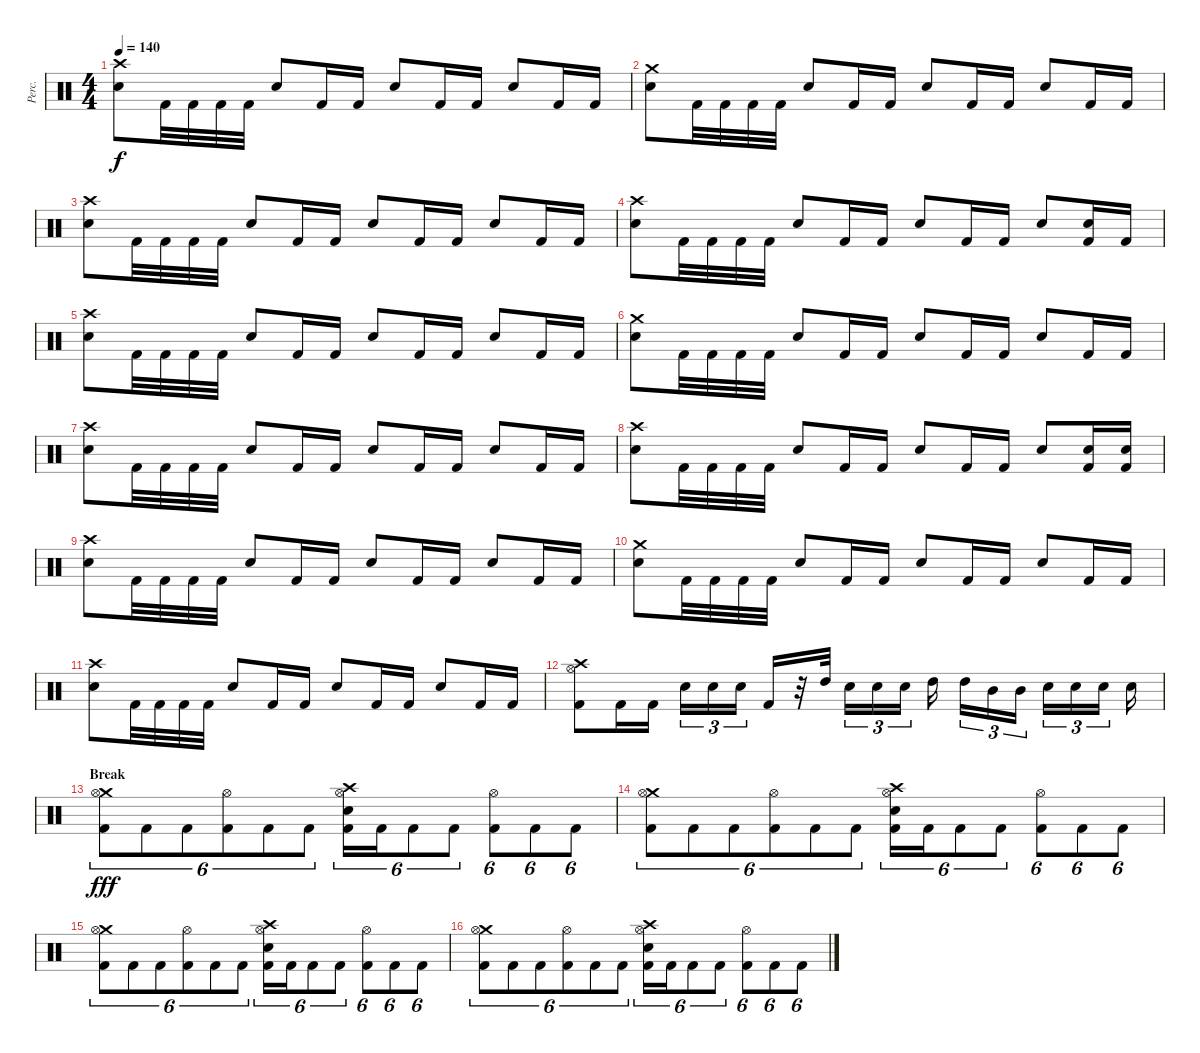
\track ("Perc." "Perc.") {instrument percussion}
\staff {score}
\articulation defaults
\ts (4 4)
\tempo 140
\clef neutral
\ks c
("Crash high (hit)" "Electric Snare (hit)").8{dy f} "Kick (hit) 2".32 "Kick (hit) 2".32 "Kick (hit) 2".32 "Kick (hit) 2".32 "Electric Snare (hit)".8 "Kick (hit) 2".16 "Kick (hit) 2".16 "Electric Snare (hit)".8 "Kick (hit) 2".16 "Kick (hit) 2".16 "Electric Snare (hit)".8 "Kick (hit) 2".16 "Kick (hit) 2".16 |
("Crash medium (hit)" "Electric Snare (hit)").8 "Kick (hit) 2".32 "Kick (hit) 2".32 "Kick (hit) 2".32 "Kick (hit) 2".32 "Electric Snare (hit)".8 "Kick (hit) 2".16 "Kick (hit) 2".16 "Electric Snare (hit)".8 "Kick (hit) 2".16 "Kick (hit) 2".16 "Electric Snare (hit)".8 "Kick (hit) 2".16 "Kick (hit) 2".16 |
("Crash high (hit)" "Electric Snare (hit)").8 "Kick (hit) 2".32 "Kick (hit) 2".32 "Kick (hit) 2".32 "Kick (hit) 2".32 "Electric Snare (hit)".8 "Kick (hit) 2".16 "Kick (hit) 2".16 "Electric Snare (hit)".8 "Kick (hit) 2".16 "Kick (hit) 2".16 "Electric Snare (hit)".8 "Kick (hit) 2".16 "Kick (hit) 2".16 |
("Crash high (hit)" "Electric Snare (hit)").8 "Kick (hit) 2".32 "Kick (hit) 2".32 "Kick (hit) 2".32 "Kick (hit) 2".32 "Electric Snare (hit)".8 "Kick (hit) 2".16 "Kick (hit) 2".16 "Electric Snare (hit)".8 "Kick (hit) 2".16 "Kick (hit) 2".16 "Electric Snare (hit)".8 ("Electric Snare (hit)" "Kick (hit) 2").16 "Kick (hit) 2".16 |
("Crash high (hit)" "Electric Snare (hit)").8 "Kick (hit) 2".32 "Kick (hit) 2".32 "Kick (hit) 2".32 "Kick (hit) 2".32 "Electric Snare (hit)".8 "Kick (hit) 2".16 "Kick (hit) 2".16 "Electric Snare (hit)".8 "Kick (hit) 2".16 "Kick (hit) 2".16 "Electric Snare (hit)".8 "Kick (hit) 2".16 "Kick (hit) 2".16 |
("Crash medium (hit)" "Electric Snare (hit)").8 "Kick (hit) 2".32 "Kick (hit) 2".32 "Kick (hit) 2".32 "Kick (hit) 2".32 "Electric Snare (hit)".8 "Kick (hit) 2".16 "Kick (hit) 2".16 "Electric Snare (hit)".8 "Kick (hit) 2".16 "Kick (hit) 2".16 "Electric Snare (hit)".8 "Kick (hit) 2".16 "Kick (hit) 2".16 |
("Crash high (hit)" "Electric Snare (hit)").8 "Kick (hit) 2".32 "Kick (hit) 2".32 "Kick (hit) 2".32 "Kick (hit) 2".32 "Electric Snare (hit)".8 "Kick (hit) 2".16 "Kick (hit) 2".16 "Electric Snare (hit)".8 "Kick (hit) 2".16 "Kick (hit) 2".16 "Electric Snare (hit)".8 "Kick (hit) 2".16 "Kick (hit) 2".16 |
("Crash high (hit)" "Electric Snare (hit)").8 "Kick (hit) 2".32 "Kick (hit) 2".32 "Kick (hit) 2".32 "Kick (hit) 2".32 "Electric Snare (hit)".8 "Kick (hit) 2".16 "Kick (hit) 2".16 "Electric Snare (hit)".8 "Kick (hit) 2".16 "Kick (hit) 2".16 "Electric Snare (hit)".8 ("Electric Snare (hit)" "Kick (hit) 2").16 ("Electric Snare (hit)" "Kick (hit) 2").16 |
("Crash high (hit)" "Electric Snare (hit)").8 "Kick (hit) 2".32 "Kick (hit) 2".32 "Kick (hit) 2".32 "Kick (hit) 2".32 "Electric Snare (hit)".8 "Kick (hit) 2".16 "Kick (hit) 2".16 "Electric Snare (hit)".8 "Kick (hit) 2".16 "Kick (hit) 2".16 "Electric Snare (hit)".8 "Kick (hit) 2".16 "Kick (hit) 2".16 |
("Crash medium (hit)" "Electric Snare (hit)").8 "Kick (hit) 2".32 "Kick (hit) 2".32 "Kick (hit) 2".32 "Kick (hit) 2".32 "Electric Snare (hit)".8 "Kick (hit) 2".16 "Kick (hit) 2".16 "Electric Snare (hit)".8 "Kick (hit) 2".16 "Kick (hit) 2".16 "Electric Snare (hit)".8 "Kick (hit) 2".16 "Kick (hit) 2".16 |
("Crash high (hit)" "Electric Snare (hit)").8 "Kick (hit) 2".32 "Kick (hit) 2".32 "Kick (hit) 2".32 "Kick (hit) 2".32 "Electric Snare (hit)".8 "Kick (hit) 2".16 "Kick (hit) 2".16 "Electric Snare (hit)".8 "Kick (hit) 2".16 "Kick (hit) 2".16 "Electric Snare (hit)".8 "Kick (hit) 2".16 "Kick (hit) 2".16 |
("Crash high (hit)" "Hi-Hat (open)" "Kick (hit) 2").8 "Kick (hit) 2".16 "Kick (hit) 2".16 "Electric Snare (hit)".16{tu (3 2)} "Electric Snare (hit)".16{tu (3 2)} "Electric Snare (hit)".16{tu (3 2)} "Kick (hit) 2".16 r.32 "High Tom (hit)".32 "Electric Snare (hit)".16{tu (3 2)} "Electric Snare (hit)".16{tu (3 2)} "Electric Snare (hit)".16{tu (3 2)} "High Tom (hit)".16 "High Tom (hit)".16{tu (3 2)} "Mid Tom (hit)".16{tu (3 2)} "Mid Tom (hit)".16{tu (3 2)} "Electric Snare (hit)".16{tu (3 2)} "Electric Snare (hit)".16{tu (3 2)} "Electric Snare (hit)".16{tu (3 2)} "Electric Snare (hit)".16 |
\section ("" "Break")
("Crash medium (hit)" "Hi-Hat (open)" "Kick (hit) 2").8{tu (6 4) dy fff} "Kick (hit) 2".8{tu (6 4)} "Kick (hit) 2".8{tu (6 4)} ("Hi-Hat (open)" "Kick (hit) 2").8{tu (6 4)} "Kick (hit) 2".8{tu (6 4)} "Kick (hit) 2".8{tu (6 4)} ("Crash high (hit)" "Electric Snare (hit)" "Hi-Hat (open)" "Kick (hit) 2").16{tu (6 4)} "Kick (hit) 2".16{tu (6 4)} "Kick (hit) 2".8{tu (6 4)} "Kick (hit) 2".8{tu (6 4)} ("Hi-Hat (open)" "Kick (hit) 2").8{tu (6 4)} "Kick (hit) 2".8{tu (6 4)} "Kick (hit) 2".8{tu (6 4)} |
("Crash medium (hit)" "Hi-Hat (open)" "Kick (hit) 2").8{tu (6 4)} "Kick (hit) 2".8{tu (6 4)} "Kick (hit) 2".8{tu (6 4)} ("Hi-Hat (open)" "Kick (hit) 2").8{tu (6 4)} "Kick (hit) 2".8{tu (6 4)} "Kick (hit) 2".8{tu (6 4)} ("Crash high (hit)" "Electric Snare (hit)" "Hi-Hat (open)" "Kick (hit) 2").16{tu (6 4)} "Kick (hit) 2".16{tu (6 4)} "Kick (hit) 2".8{tu (6 4)} "Kick (hit) 2".8{tu (6 4)} ("Hi-Hat (open)" "Kick (hit) 2").8{tu (6 4)} "Kick (hit) 2".8{tu (6 4)} "Kick (hit) 2".8{tu (6 4)} |
("Crash medium (hit)" "Hi-Hat (open)" "Kick (hit) 2").8{tu (6 4)} "Kick (hit) 2".8{tu (6 4)} "Kick (hit) 2".8{tu (6 4)} ("Hi-Hat (open)" "Kick (hit) 2").8{tu (6 4)} "Kick (hit) 2".8{tu (6 4)} "Kick (hit) 2".8{tu (6 4)} ("Crash high (hit)" "Electric Snare (hit)" "Hi-Hat (open)" "Kick (hit) 2").16{tu (6 4)} "Kick (hit) 2".16{tu (6 4)} "Kick (hit) 2".8{tu (6 4)} "Kick (hit) 2".8{tu (6 4)} ("Hi-Hat (open)" "Kick (hit) 2").8{tu (6 4)} "Kick (hit) 2".8{tu (6 4)} "Kick (hit) 2".8{tu (6 4)} |
("Crash medium (hit)" "Hi-Hat (open)" "Kick (hit) 2").8{tu (6 4)} "Kick (hit) 2".8{tu (6 4)} "Kick (hit) 2".8{tu (6 4)} ("Hi-Hat (open)" "Kick (hit) 2").8{tu (6 4)} "Kick (hit) 2".8{tu (6 4)} "Kick (hit) 2".8{tu (6 4)} ("Crash high (hit)" "Electric Snare (hit)" "Hi-Hat (open)" "Kick (hit) 2").16{tu (6 4)} "Kick (hit) 2".16{tu (6 4)} "Kick (hit) 2".8{tu (6 4)} "Kick (hit) 2".8{tu (6 4)} ("Hi-Hat (open)" "Kick (hit) 2").8{tu (6 4)} "Kick (hit) 2".8{tu (6 4)} "Kick (hit) 2".8{tu (6 4)}
